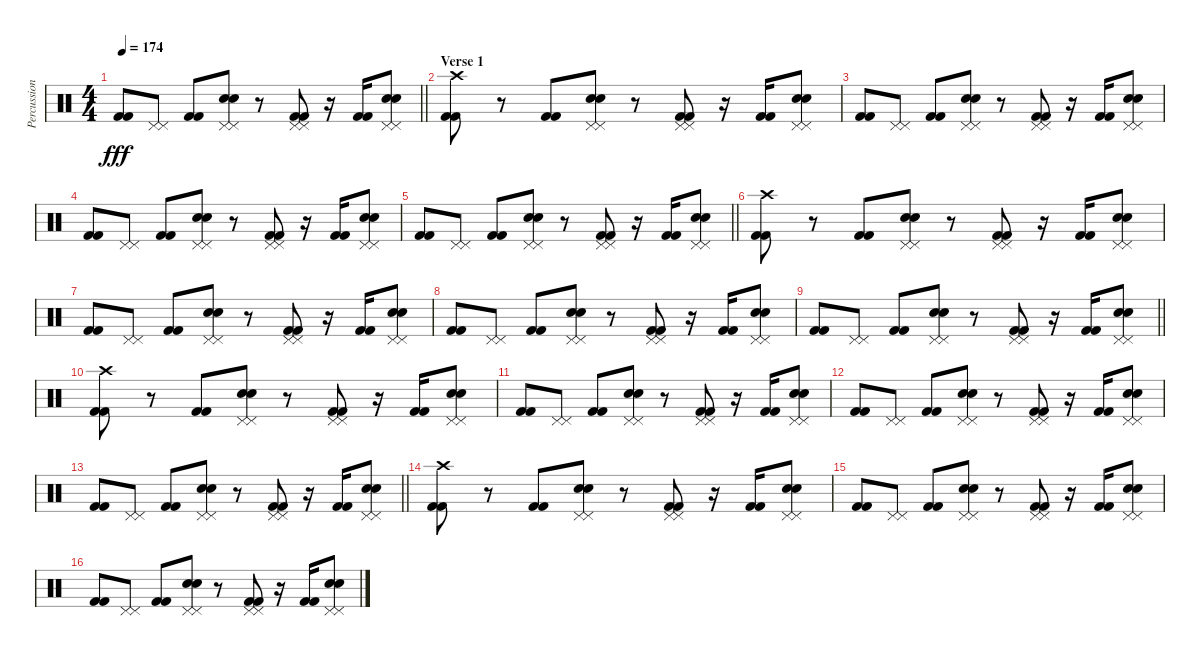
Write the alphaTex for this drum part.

\track ("Percussion" "Percussion") {instrument percussion}
\staff {score}
\articulation defaults
\ts (4 4)
\tempo 174
\clef neutral
\barLineRight lightlight
\ks c
("Kick (hit) 2" "Kick (hit) 2").8{dy fff} ("Pedal Hi-Hat (hit)" "Pedal Hi-Hat (hit)").8 ("Kick (hit) 2" "Kick (hit) 2").8 ("Pedal Hi-Hat (hit)" "Pedal Hi-Hat (hit)" "Electric Snare (hit)" "Electric Snare (hit)").8 r.8 ("Pedal Hi-Hat (hit)" "Pedal Hi-Hat (hit)" "Kick (hit) 2" "Kick (hit) 2").8 r.16 ("Kick (hit) 2" "Kick (hit) 2").16 ("Pedal Hi-Hat (hit)" "Pedal Hi-Hat (hit)" "Electric Snare (hit)" "Electric Snare (hit)").8 |
\section ("" "Verse 1")
("Crash high (hit)" "Kick (hit) 2" "Kick (hit) 2").8 r.8 ("Kick (hit) 2" "Kick (hit) 2").8 ("Pedal Hi-Hat (hit)" "Pedal Hi-Hat (hit)" "Electric Snare (hit)" "Electric Snare (hit)").8 r.8 ("Pedal Hi-Hat (hit)" "Pedal Hi-Hat (hit)" "Kick (hit) 2" "Kick (hit) 2").8 r.16 ("Kick (hit) 2" "Kick (hit) 2").16 ("Pedal Hi-Hat (hit)" "Pedal Hi-Hat (hit)" "Electric Snare (hit)" "Electric Snare (hit)").8 |
("Kick (hit) 2" "Kick (hit) 2").8 ("Pedal Hi-Hat (hit)" "Pedal Hi-Hat (hit)").8 ("Kick (hit) 2" "Kick (hit) 2").8 ("Pedal Hi-Hat (hit)" "Pedal Hi-Hat (hit)" "Electric Snare (hit)" "Electric Snare (hit)").8 r.8 ("Pedal Hi-Hat (hit)" "Pedal Hi-Hat (hit)" "Kick (hit) 2" "Kick (hit) 2").8 r.16 ("Kick (hit) 2" "Kick (hit) 2").16 ("Pedal Hi-Hat (hit)" "Pedal Hi-Hat (hit)" "Electric Snare (hit)" "Electric Snare (hit)").8 |
("Kick (hit) 2" "Kick (hit) 2").8 ("Pedal Hi-Hat (hit)" "Pedal Hi-Hat (hit)").8 ("Kick (hit) 2" "Kick (hit) 2").8 ("Pedal Hi-Hat (hit)" "Pedal Hi-Hat (hit)" "Electric Snare (hit)" "Electric Snare (hit)").8 r.8 ("Pedal Hi-Hat (hit)" "Pedal Hi-Hat (hit)" "Kick (hit) 2" "Kick (hit) 2").8 r.16 ("Kick (hit) 2" "Kick (hit) 2").16 ("Pedal Hi-Hat (hit)" "Pedal Hi-Hat (hit)" "Electric Snare (hit)" "Electric Snare (hit)").8 |
\barLineRight lightlight
("Kick (hit) 2" "Kick (hit) 2").8 ("Pedal Hi-Hat (hit)" "Pedal Hi-Hat (hit)").8 ("Kick (hit) 2" "Kick (hit) 2").8 ("Pedal Hi-Hat (hit)" "Pedal Hi-Hat (hit)" "Electric Snare (hit)" "Electric Snare (hit)").8 r.8 ("Pedal Hi-Hat (hit)" "Pedal Hi-Hat (hit)" "Kick (hit) 2" "Kick (hit) 2").8 r.16 ("Kick (hit) 2" "Kick (hit) 2").16 ("Pedal Hi-Hat (hit)" "Pedal Hi-Hat (hit)" "Electric Snare (hit)" "Electric Snare (hit)").8 |
("Crash high (hit)" "Kick (hit) 2" "Kick (hit) 2").8 r.8 ("Kick (hit) 2" "Kick (hit) 2").8 ("Pedal Hi-Hat (hit)" "Pedal Hi-Hat (hit)" "Electric Snare (hit)" "Electric Snare (hit)").8 r.8 ("Pedal Hi-Hat (hit)" "Pedal Hi-Hat (hit)" "Kick (hit) 2" "Kick (hit) 2").8 r.16 ("Kick (hit) 2" "Kick (hit) 2").16 ("Pedal Hi-Hat (hit)" "Pedal Hi-Hat (hit)" "Electric Snare (hit)" "Electric Snare (hit)").8 |
("Kick (hit) 2" "Kick (hit) 2").8 ("Pedal Hi-Hat (hit)" "Pedal Hi-Hat (hit)").8 ("Kick (hit) 2" "Kick (hit) 2").8 ("Pedal Hi-Hat (hit)" "Pedal Hi-Hat (hit)" "Electric Snare (hit)" "Electric Snare (hit)").8 r.8 ("Pedal Hi-Hat (hit)" "Pedal Hi-Hat (hit)" "Kick (hit) 2" "Kick (hit) 2").8 r.16 ("Kick (hit) 2" "Kick (hit) 2").16 ("Pedal Hi-Hat (hit)" "Pedal Hi-Hat (hit)" "Electric Snare (hit)" "Electric Snare (hit)").8 |
("Kick (hit) 2" "Kick (hit) 2").8 ("Pedal Hi-Hat (hit)" "Pedal Hi-Hat (hit)").8 ("Kick (hit) 2" "Kick (hit) 2").8 ("Pedal Hi-Hat (hit)" "Pedal Hi-Hat (hit)" "Electric Snare (hit)" "Electric Snare (hit)").8 r.8 ("Pedal Hi-Hat (hit)" "Pedal Hi-Hat (hit)" "Kick (hit) 2" "Kick (hit) 2").8 r.16 ("Kick (hit) 2" "Kick (hit) 2").16 ("Pedal Hi-Hat (hit)" "Pedal Hi-Hat (hit)" "Electric Snare (hit)" "Electric Snare (hit)").8 |
\barLineRight lightlight
("Kick (hit) 2" "Kick (hit) 2").8 ("Pedal Hi-Hat (hit)" "Pedal Hi-Hat (hit)").8 ("Kick (hit) 2" "Kick (hit) 2").8 ("Pedal Hi-Hat (hit)" "Pedal Hi-Hat (hit)" "Electric Snare (hit)" "Electric Snare (hit)").8 r.8 ("Pedal Hi-Hat (hit)" "Pedal Hi-Hat (hit)" "Kick (hit) 2" "Kick (hit) 2").8 r.16 ("Kick (hit) 2" "Kick (hit) 2").16 ("Pedal Hi-Hat (hit)" "Pedal Hi-Hat (hit)" "Electric Snare (hit)" "Electric Snare (hit)").8 |
("Crash high (hit)" "Kick (hit) 2" "Kick (hit) 2").8 r.8 ("Kick (hit) 2" "Kick (hit) 2").8 ("Pedal Hi-Hat (hit)" "Pedal Hi-Hat (hit)" "Electric Snare (hit)" "Electric Snare (hit)").8 r.8 ("Pedal Hi-Hat (hit)" "Pedal Hi-Hat (hit)" "Kick (hit) 2" "Kick (hit) 2").8 r.16 ("Kick (hit) 2" "Kick (hit) 2").16 ("Pedal Hi-Hat (hit)" "Pedal Hi-Hat (hit)" "Electric Snare (hit)" "Electric Snare (hit)").8 |
("Kick (hit) 2" "Kick (hit) 2").8 ("Pedal Hi-Hat (hit)" "Pedal Hi-Hat (hit)").8 ("Kick (hit) 2" "Kick (hit) 2").8 ("Pedal Hi-Hat (hit)" "Pedal Hi-Hat (hit)" "Electric Snare (hit)" "Electric Snare (hit)").8 r.8 ("Pedal Hi-Hat (hit)" "Pedal Hi-Hat (hit)" "Kick (hit) 2" "Kick (hit) 2").8 r.16 ("Kick (hit) 2" "Kick (hit) 2").16 ("Pedal Hi-Hat (hit)" "Pedal Hi-Hat (hit)" "Electric Snare (hit)" "Electric Snare (hit)").8 |
("Kick (hit) 2" "Kick (hit) 2").8 ("Pedal Hi-Hat (hit)" "Pedal Hi-Hat (hit)").8 ("Kick (hit) 2" "Kick (hit) 2").8 ("Pedal Hi-Hat (hit)" "Pedal Hi-Hat (hit)" "Electric Snare (hit)" "Electric Snare (hit)").8 r.8 ("Pedal Hi-Hat (hit)" "Pedal Hi-Hat (hit)" "Kick (hit) 2" "Kick (hit) 2").8 r.16 ("Kick (hit) 2" "Kick (hit) 2").16 ("Pedal Hi-Hat (hit)" "Pedal Hi-Hat (hit)" "Electric Snare (hit)" "Electric Snare (hit)").8 |
\barLineRight lightlight
("Kick (hit) 2" "Kick (hit) 2").8 ("Pedal Hi-Hat (hit)" "Pedal Hi-Hat (hit)").8 ("Kick (hit) 2" "Kick (hit) 2").8 ("Pedal Hi-Hat (hit)" "Pedal Hi-Hat (hit)" "Electric Snare (hit)" "Electric Snare (hit)").8 r.8 ("Pedal Hi-Hat (hit)" "Pedal Hi-Hat (hit)" "Kick (hit) 2" "Kick (hit) 2").8 r.16 ("Kick (hit) 2" "Kick (hit) 2").16 ("Pedal Hi-Hat (hit)" "Pedal Hi-Hat (hit)" "Electric Snare (hit)" "Electric Snare (hit)").8 |
("Crash high (hit)" "Kick (hit) 2" "Kick (hit) 2").8 r.8 ("Kick (hit) 2" "Kick (hit) 2").8 ("Pedal Hi-Hat (hit)" "Pedal Hi-Hat (hit)" "Electric Snare (hit)" "Electric Snare (hit)").8 r.8 ("Pedal Hi-Hat (hit)" "Pedal Hi-Hat (hit)" "Kick (hit) 2" "Kick (hit) 2").8 r.16 ("Kick (hit) 2" "Kick (hit) 2").16 ("Pedal Hi-Hat (hit)" "Pedal Hi-Hat (hit)" "Electric Snare (hit)" "Electric Snare (hit)").8 |
("Kick (hit) 2" "Kick (hit) 2").8 ("Pedal Hi-Hat (hit)" "Pedal Hi-Hat (hit)").8 ("Kick (hit) 2" "Kick (hit) 2").8 ("Pedal Hi-Hat (hit)" "Pedal Hi-Hat (hit)" "Electric Snare (hit)" "Electric Snare (hit)").8 r.8 ("Pedal Hi-Hat (hit)" "Pedal Hi-Hat (hit)" "Kick (hit) 2" "Kick (hit) 2").8 r.16 ("Kick (hit) 2" "Kick (hit) 2").16 ("Pedal Hi-Hat (hit)" "Pedal Hi-Hat (hit)" "Electric Snare (hit)" "Electric Snare (hit)").8 |
("Kick (hit) 2" "Kick (hit) 2").8 ("Pedal Hi-Hat (hit)" "Pedal Hi-Hat (hit)").8 ("Kick (hit) 2" "Kick (hit) 2").8 ("Pedal Hi-Hat (hit)" "Pedal Hi-Hat (hit)" "Electric Snare (hit)" "Electric Snare (hit)").8 r.8 ("Pedal Hi-Hat (hit)" "Pedal Hi-Hat (hit)" "Kick (hit) 2" "Kick (hit) 2").8 r.16 ("Kick (hit) 2" "Kick (hit) 2").16 ("Pedal Hi-Hat (hit)" "Pedal Hi-Hat (hit)" "Electric Snare (hit)" "Electric Snare (hit)").8
